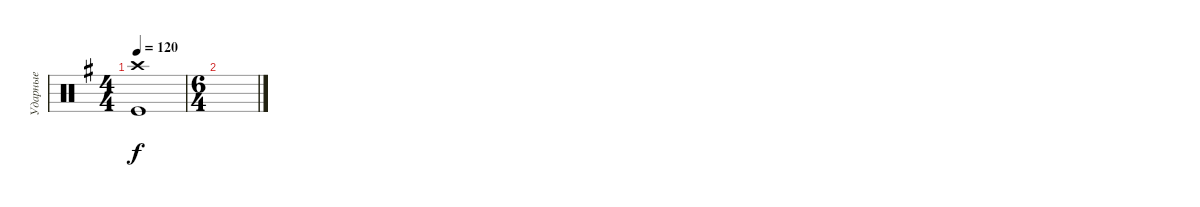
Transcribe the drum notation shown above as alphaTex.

\track ("Ударные" "Ударные") {instrument percussion}
\staff {score}
\articulation defaults
\ts (4 4)
\tempo 120
\clef neutral
\ks eminor
("Crash high (hit)" "Kick (hit)").1{dy f} |
\ts (6 4)
